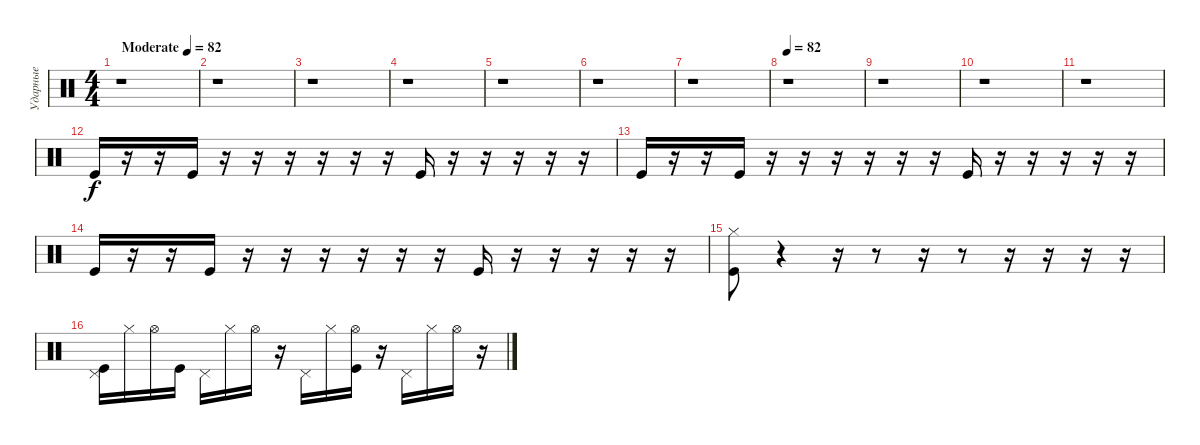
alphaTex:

\track ("Ударные" "Ударные") {instrument percussion}
\staff {score}
\articulation defaults
\ts (4 4)
\tempo (82 "Moderate")
\clef neutral
\ks c
r.1{dy f} |
r.1 |
r.1 |
r.1 |
r.1 |
r.1 |
r.1 |
\tempo 82
r.1 |
r.1 |
r.1 |
r.1 |
"Kick (hit)".16 r.16 r.16 "Kick (hit)".16 r.16 r.16 r.16 r.16 r.16 r.16 "Kick (hit)".16 r.16 r.16 r.16 r.16 r.16 |
"Kick (hit)".16 r.16 r.16 "Kick (hit)".16 r.16 r.16 r.16 r.16 r.16 r.16 "Kick (hit)".16 r.16 r.16 r.16 r.16 r.16 |
"Kick (hit)".16 r.16 r.16 "Kick (hit)".16 r.16 r.16 r.16 r.16 r.16 r.16 "Kick (hit)".16 r.16 r.16 r.16 r.16 r.16 |
("Hi-Hat (closed)" "Kick (hit)").8 r.4 r.16 r.8 r.16 r.8 r.16 r.16 r.16 r.16 |
("Kick (hit)" "Pedal Hi-Hat (hit)").16 "Hi-Hat (closed)".16 "Hi-Hat (open)".16 "Kick (hit)".16 "Pedal Hi-Hat (hit)".16 "Hi-Hat (closed)".16 "Hi-Hat (open)".16 r.16 "Pedal Hi-Hat (hit)".16 "Hi-Hat (closed)".16 ("Hi-Hat (open)" "Kick (hit)").16 r.16 "Pedal Hi-Hat (hit)".16 "Hi-Hat (closed)".16 "Hi-Hat (open)".16 r.16
